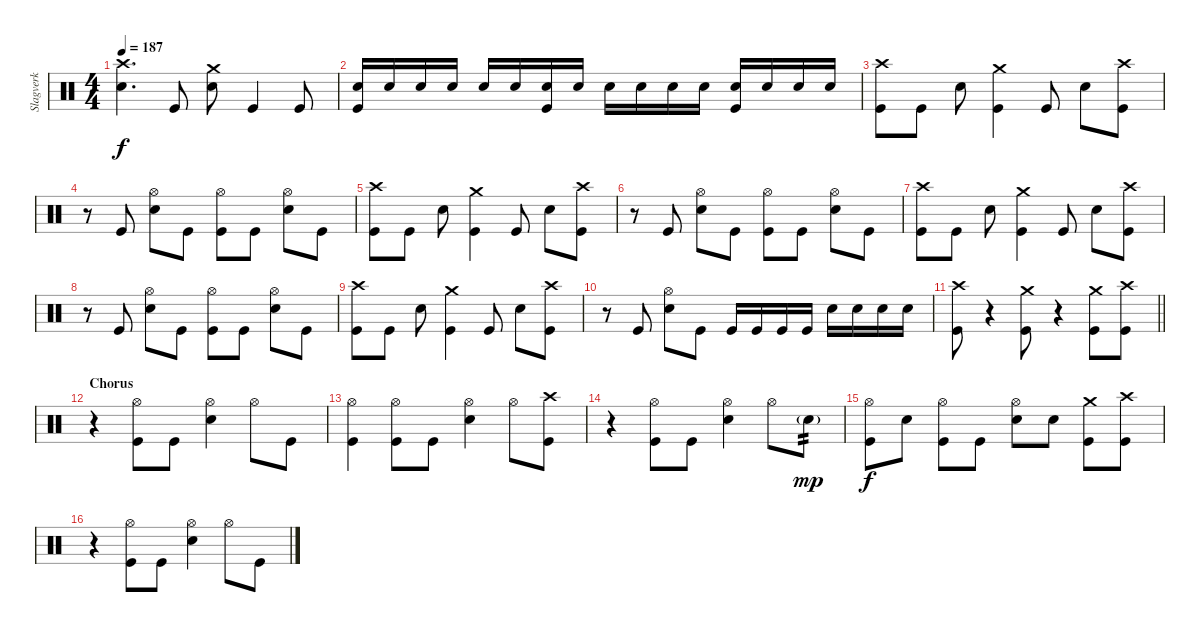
\track ("Slagverk" "Slagverk") {instrument percussion}
\staff {score}
\articulation defaults
\ts (4 4)
\tempo 187
\clef neutral
\ks c
("Crash high (hit)" "Electric Snare (hit)").4{d dy f} "Kick (hit)".8 ("Crash medium (hit)" "Electric Snare (hit)").8 "Kick (hit)".4 "Kick (hit)".8 |
("Electric Snare (hit)" "Kick (hit)").16 "Electric Snare (hit)".16 "Electric Snare (hit)".16 "Electric Snare (hit)".16 "Electric Snare (hit)".16 "Electric Snare (hit)".16 ("Electric Snare (hit)" "Kick (hit)").16 "Electric Snare (hit)".16 "Electric Snare (hit)".16 "Electric Snare (hit)".16 "Electric Snare (hit)".16 "Electric Snare (hit)".16 ("Electric Snare (hit)" "Kick (hit)").16 "Electric Snare (hit)".16 "Electric Snare (hit)".16 "Electric Snare (hit)".16 |
("Crash high (hit)" "Kick (hit)").8 "Kick (hit)".8 "Electric Snare (hit)".8 ("Crash medium (hit)" "Kick (hit)").4 "Kick (hit)".8 "Electric Snare (hit)".8 ("Crash high (hit)" "Kick (hit)").8 |
r.8 "Kick (hit)".8 ("Hi-Hat (open)" "Electric Snare (hit)").8 "Kick (hit)".8 ("Hi-Hat (open)" "Kick (hit)").8 "Kick (hit)".8 ("Hi-Hat (open)" "Electric Snare (hit)").8 "Kick (hit)".8 |
("Crash high (hit)" "Kick (hit)").8 "Kick (hit)".8 "Electric Snare (hit)".8 ("Crash medium (hit)" "Kick (hit)").4 "Kick (hit)".8 "Electric Snare (hit)".8 ("Crash high (hit)" "Kick (hit)").8 |
r.8 "Kick (hit)".8 ("Hi-Hat (open)" "Electric Snare (hit)").8 "Kick (hit)".8 ("Hi-Hat (open)" "Kick (hit)").8 "Kick (hit)".8 ("Hi-Hat (open)" "Electric Snare (hit)").8 "Kick (hit)".8 |
("Crash high (hit)" "Kick (hit)").8 "Kick (hit)".8 "Electric Snare (hit)".8 ("Crash medium (hit)" "Kick (hit)").4 "Kick (hit)".8 "Electric Snare (hit)".8 ("Crash high (hit)" "Kick (hit)").8 |
r.8 "Kick (hit)".8 ("Hi-Hat (open)" "Electric Snare (hit)").8 "Kick (hit)".8 ("Hi-Hat (open)" "Kick (hit)").8 "Kick (hit)".8 ("Hi-Hat (open)" "Electric Snare (hit)").8 "Kick (hit)".8 |
("Crash high (hit)" "Kick (hit)").8 "Kick (hit)".8 "Electric Snare (hit)".8 ("Crash medium (hit)" "Kick (hit)").4 "Kick (hit)".8 "Electric Snare (hit)".8 ("Crash high (hit)" "Kick (hit)").8 |
r.8 "Kick (hit)".8 ("Hi-Hat (open)" "Electric Snare (hit)").8 "Kick (hit)".8 "Kick (hit)".16 "Kick (hit)".16 "Kick (hit)".16 "Kick (hit)".16 "Electric Snare (hit)".16 "Electric Snare (hit)".16 "Electric Snare (hit)".16 "Electric Snare (hit)".16 |
\barLineRight lightlight
("Crash high (hit)" "Kick (hit)").8 r.4 ("Crash medium (hit)" "Kick (hit)").8 r.4 ("Crash medium (hit)" "Kick (hit)").8 ("Crash high (hit)" "Kick (hit)").8 |
\section ("" "Chorus")
r.4 ("Hi-Hat (open)" "Kick (hit)").8 "Kick (hit)".8 ("Hi-Hat (open)" "Electric Snare (hit)").4 "Hi-Hat (open)".8 "Kick (hit)".8 |
("Hi-Hat (open)" "Kick (hit)").4 ("Hi-Hat (open)" "Kick (hit)").8 "Kick (hit)".8 ("Hi-Hat (open)" "Electric Snare (hit)").4 "Hi-Hat (open)".8 ("Crash high (hit)" "Kick (hit)").8 |
r.4 ("Hi-Hat (open)" "Kick (hit)").8 "Kick (hit)".8 ("Hi-Hat (open)" "Electric Snare (hit)").4 "Hi-Hat (open)".8 "Electric Snare (hit)"{g}.8{tp 2 dy mp} |
("Hi-Hat (open)" "Kick (hit)").8{dy f} "Electric Snare (hit)".8 ("Hi-Hat (open)" "Kick (hit)").8 "Kick (hit)".8 ("Hi-Hat (open)" "Electric Snare (hit)").8 "Electric Snare (hit)".8 ("Crash medium (hit)" "Kick (hit)").8 ("Crash high (hit)" "Kick (hit)").8 |
r.4 ("Hi-Hat (open)" "Kick (hit)").8 "Kick (hit)".8 ("Hi-Hat (open)" "Electric Snare (hit)").4 "Hi-Hat (open)".8 "Kick (hit)".8
